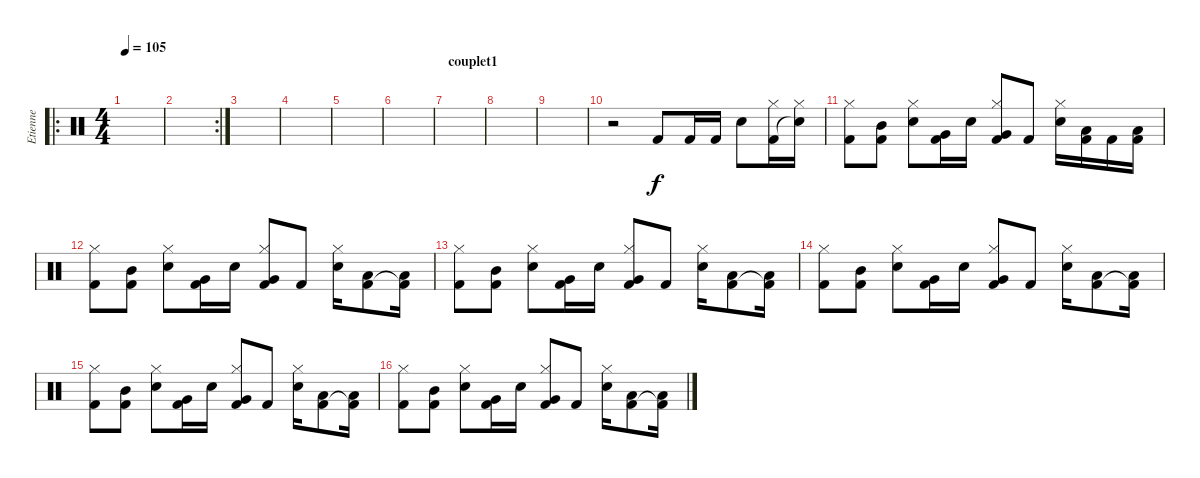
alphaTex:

\track ("Etienne" "Etienne") {instrument percussion}
\staff {score}
\articulation defaults
\ro
\ts (4 4)
\tempo 105
\clef neutral
\ks c
|
\rc 2
|
|
|
|
|
\section ("" "couplet1")
|
|
|
r.2 "Kick (hit) 2".8 "Kick (hit) 2".16 "Kick (hit) 2".16 "Snare (hit) 2".8 ("Kick (hit) 2" "Hi-Hat (closed)").16 ("Snare (hit)"{t} "Hi-Hat (closed)").16 |
("Kick (hit) 2" "Hi-Hat (closed)").8 ("Kick (hit) 2" "Mid Tom (hit)").8 ("Snare (hit) 2" "Hi-Hat (closed)").8 ("Kick (hit) 2" "Very Low Tom (hit)").16 "Snare (hit) 2".16 ("Kick (hit) 2" "Hi-Hat (closed)" "Very Low Tom (hit)").8 "Kick (hit) 2".8 ("Snare (hit) 2" "Hi-Hat (closed)").16 ("Kick (hit) 2" "Low Floor Tom (hit)").16 "Kick (hit) 2".16 ("Kick (hit) 2" "Low Floor Tom (hit)").16 |
("Kick (hit) 2" "Hi-Hat (closed)").8 ("Kick (hit) 2" "Mid Tom (hit)").8 ("Snare (hit) 2" "Hi-Hat (closed)").8 ("Kick (hit) 2" "Very Low Tom (hit)").16 "Snare (hit) 2".16 ("Kick (hit) 2" "Hi-Hat (closed)" "Very Low Tom (hit)").8 "Kick (hit) 2".8 ("Snare (hit) 2" "Hi-Hat (closed)").16 ("Kick (hit) 2" "Low Floor Tom (hit)").8 ("Kick (hit) 2"{t} "Low Floor Tom (hit)").16 |
("Kick (hit) 2" "Hi-Hat (closed)").8 ("Kick (hit) 2" "Mid Tom (hit)").8 ("Snare (hit) 2" "Hi-Hat (closed)").8 ("Kick (hit) 2" "Very Low Tom (hit)").16 "Snare (hit) 2".16 ("Kick (hit) 2" "Hi-Hat (closed)" "Very Low Tom (hit)").8 "Kick (hit) 2".8 ("Snare (hit) 2" "Hi-Hat (closed)").16 ("Kick (hit) 2" "Low Floor Tom (hit)").8 ("Kick (hit) 2"{t} "Low Floor Tom (hit)").16 |
("Kick (hit) 2" "Hi-Hat (closed)").8 ("Kick (hit) 2" "Mid Tom (hit)").8 ("Snare (hit) 2" "Hi-Hat (closed)").8 ("Kick (hit) 2" "Very Low Tom (hit)").16 "Snare (hit) 2".16 ("Kick (hit) 2" "Hi-Hat (closed)" "Very Low Tom (hit)").8 "Kick (hit) 2".8 ("Snare (hit) 2" "Hi-Hat (closed)").16 ("Kick (hit) 2" "Low Floor Tom (hit)").8 ("Kick (hit) 2"{t} "Low Floor Tom (hit)").16 |
("Kick (hit) 2" "Hi-Hat (closed)").8 ("Kick (hit) 2" "Mid Tom (hit)").8 ("Snare (hit) 2" "Hi-Hat (closed)").8 ("Kick (hit) 2" "Very Low Tom (hit)").16 "Snare (hit) 2".16 ("Kick (hit) 2" "Hi-Hat (closed)" "Very Low Tom (hit)").8 "Kick (hit) 2".8 ("Snare (hit) 2" "Hi-Hat (closed)").16 ("Kick (hit) 2" "Low Floor Tom (hit)").8 ("Kick (hit) 2"{t} "Low Floor Tom (hit)").16 |
("Kick (hit) 2" "Hi-Hat (closed)").8 ("Kick (hit) 2" "Mid Tom (hit)").8 ("Snare (hit) 2" "Hi-Hat (closed)").8 ("Kick (hit) 2" "Very Low Tom (hit)").16 "Snare (hit) 2".16 ("Kick (hit) 2" "Hi-Hat (closed)" "Very Low Tom (hit)").8 "Kick (hit) 2".8 ("Snare (hit) 2" "Hi-Hat (closed)").16 ("Kick (hit) 2" "Low Floor Tom (hit)").8 ("Kick (hit) 2"{t} "Low Floor Tom (hit)").16
